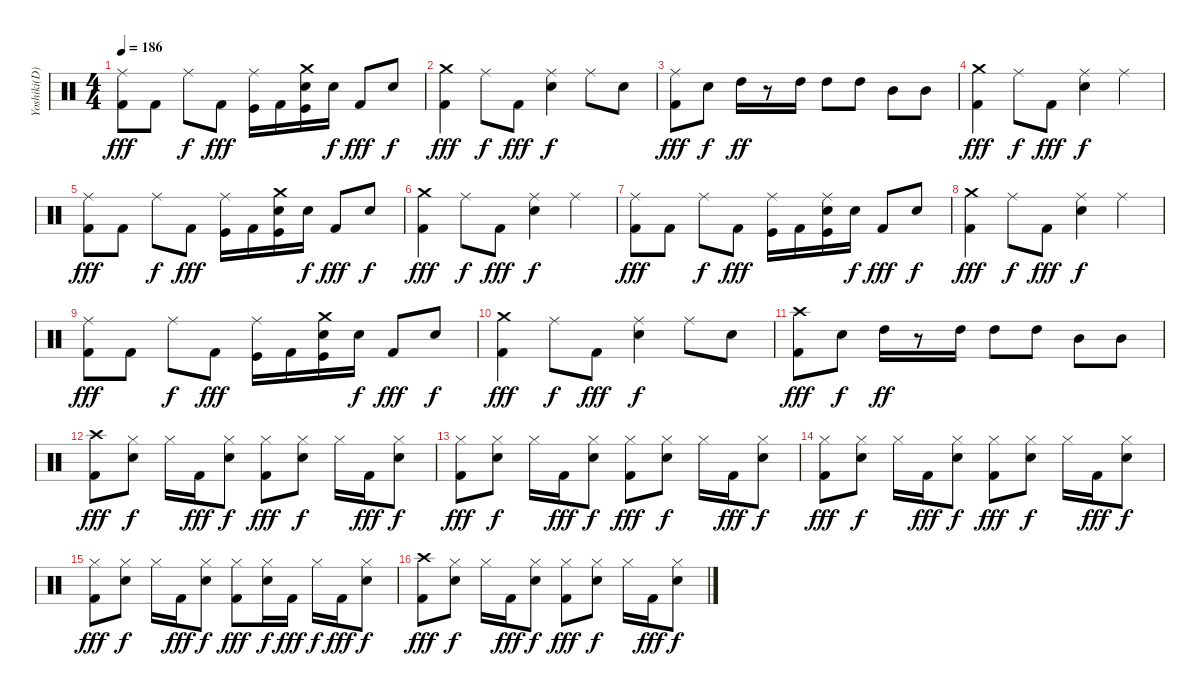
\track ("Yoshiki(D)" "Yoshiki(D)") {instrument percussion}
\staff {score}
\articulation defaults
\ts (4 4)
\tempo 186
\clef neutral
\ks c
("Ride (middle)" "Kick (hit) 2").8{dy fff} "Kick (hit) 2".8 "Ride (middle)".8{dy f} "Kick (hit) 2".8{dy fff} ("Ride (middle)" "Kick (hit)").16 "Kick (hit) 2".16 ("Crash medium (hit)" "Electric Snare (hit)" "Kick (hit)").16 "Electric Snare (hit)".16{dy f} "Kick (hit) 2".8{dy fff} "Electric Snare (hit)".8{dy f} |
("Crash medium (hit)" "Kick (hit) 2").4{dy fff} "Ride (middle)".8{dy f} "Kick (hit) 2".8{dy fff} ("Ride (middle)" "Electric Snare (hit)").4{dy f} "Ride (middle)".8 "Electric Snare (hit)".8 |
("Ride (middle)" "Kick (hit) 2").8{dy fff} "Electric Snare (hit)".8{dy f} "High Tom (hit)".16{dy ff} r.8 "High Tom (hit)".16 "High Tom (hit)".8 "High Tom (hit)".8 "Mid Tom (hit)".8 "Mid Tom (hit)".8 |
("Crash medium (hit)" "Kick (hit) 2").4{dy fff} "Ride (middle)".8{dy f} "Kick (hit) 2".8{dy fff} ("Ride (middle)" "Electric Snare (hit)").4{dy f} "Ride (middle)".4 |
("Ride (middle)" "Kick (hit) 2").8{dy fff} "Kick (hit) 2".8 "Ride (middle)".8{dy f} "Kick (hit) 2".8{dy fff} ("Ride (middle)" "Kick (hit)").16 "Kick (hit) 2".16 ("Crash medium (hit)" "Electric Snare (hit)" "Kick (hit)").16 "Electric Snare (hit)".16{dy f} "Kick (hit) 2".8{dy fff} "Electric Snare (hit)".8{dy f} |
("Crash medium (hit)" "Kick (hit) 2").4{dy fff} "Ride (middle)".8{dy f} "Kick (hit) 2".8{dy fff} ("Ride (middle)" "Electric Snare (hit)").4{dy f} "Ride (middle)".4 |
("Ride (middle)" "Kick (hit) 2").8{dy fff} "Kick (hit) 2".8 "Ride (middle)".8{dy f} "Kick (hit) 2".8{dy fff} ("Ride (middle)" "Kick (hit)").16 "Kick (hit) 2".16 ("Ride (middle)" "Electric Snare (hit)" "Kick (hit)").16 "Electric Snare (hit)".16{dy f} "Kick (hit) 2".8{dy fff} "Electric Snare (hit)".8{dy f} |
("Crash medium (hit)" "Kick (hit) 2").4{dy fff} "Ride (middle)".8{dy f} "Kick (hit) 2".8{dy fff} ("Ride (middle)" "Electric Snare (hit)").4{dy f} "Ride (middle)".4 |
("Ride (middle)" "Kick (hit) 2").8{dy fff} "Kick (hit) 2".8 "Ride (middle)".8{dy f} "Kick (hit) 2".8{dy fff} ("Ride (middle)" "Kick (hit)").16 "Kick (hit) 2".16 ("Crash medium (hit)" "Electric Snare (hit)" "Kick (hit)").16 "Electric Snare (hit)".16{dy f} "Kick (hit) 2".8{dy fff} "Electric Snare (hit)".8{dy f} |
("Crash medium (hit)" "Kick (hit) 2").4{dy fff} "Ride (middle)".8{dy f} "Kick (hit) 2".8{dy fff} ("Ride (middle)" "Electric Snare (hit)").4{dy f} "Ride (middle)".8 "Electric Snare (hit)".8 |
("Crash high (hit)" "Kick (hit) 2").8{dy fff} "Electric Snare (hit)".8{dy f} "High Tom (hit)".16{dy ff} r.8 "High Tom (hit)".16 "High Tom (hit)".8 "High Tom (hit)".8 "Mid Tom (hit)".8 "Mid Tom (hit)".8 |
("Crash high (hit)" "Kick (hit) 2").8{dy fff} ("Hi-Hat (closed)" "Electric Snare (hit)").8{dy f} "Hi-Hat (closed)".16 "Kick (hit) 2".16{dy fff} ("Hi-Hat (closed)" "Electric Snare (hit)").8{dy f} ("Hi-Hat (closed)" "Kick (hit) 2").8{dy fff} ("Hi-Hat (closed)" "Electric Snare (hit)").8{dy f} "Hi-Hat (closed)".16 "Kick (hit) 2".16{dy fff} ("Hi-Hat (closed)" "Electric Snare (hit)").8{dy f} |
("Hi-Hat (closed)" "Kick (hit) 2").8{dy fff} ("Hi-Hat (closed)" "Electric Snare (hit)").8{dy f} "Hi-Hat (closed)".16 "Kick (hit) 2".16{dy fff} ("Hi-Hat (closed)" "Electric Snare (hit)").8{dy f} ("Hi-Hat (closed)" "Kick (hit) 2").8{dy fff} ("Hi-Hat (closed)" "Electric Snare (hit)").8{dy f} "Hi-Hat (closed)".16 "Kick (hit) 2".16{dy fff} ("Hi-Hat (closed)" "Electric Snare (hit)").8{dy f} |
("Hi-Hat (closed)" "Kick (hit) 2").8{dy fff} ("Hi-Hat (closed)" "Electric Snare (hit)").8{dy f} "Hi-Hat (closed)".16 "Kick (hit) 2".16{dy fff} ("Hi-Hat (closed)" "Electric Snare (hit)").8{dy f} ("Hi-Hat (closed)" "Kick (hit) 2").8{dy fff} ("Hi-Hat (closed)" "Electric Snare (hit)").8{dy f} "Hi-Hat (closed)".16 "Kick (hit) 2".16{dy fff} ("Hi-Hat (closed)" "Electric Snare (hit)").8{dy f} |
("Hi-Hat (closed)" "Kick (hit) 2").8{dy fff} ("Hi-Hat (closed)" "Electric Snare (hit)").8{dy f} "Hi-Hat (closed)".16 "Kick (hit) 2".16{dy fff} ("Hi-Hat (closed)" "Electric Snare (hit)").8{dy f} ("Hi-Hat (closed)" "Kick (hit) 2").8{dy fff} ("Hi-Hat (closed)" "Electric Snare (hit)").16{dy f} "Kick (hit) 2".16{dy fff} "Hi-Hat (closed)".16{dy f} "Kick (hit) 2".16{dy fff} ("Hi-Hat (closed)" "Electric Snare (hit)").8{dy f} |
("Crash high (hit)" "Kick (hit) 2").8{dy fff} ("Hi-Hat (closed)" "Electric Snare (hit)").8{dy f} "Hi-Hat (closed)".16 "Kick (hit) 2".16{dy fff} ("Hi-Hat (closed)" "Electric Snare (hit)").8{dy f} ("Hi-Hat (closed)" "Kick (hit) 2").8{dy fff} ("Hi-Hat (closed)" "Electric Snare (hit)").8{dy f} "Hi-Hat (closed)".16 "Kick (hit) 2".16{dy fff} ("Hi-Hat (closed)" "Electric Snare (hit)").8{dy f}
